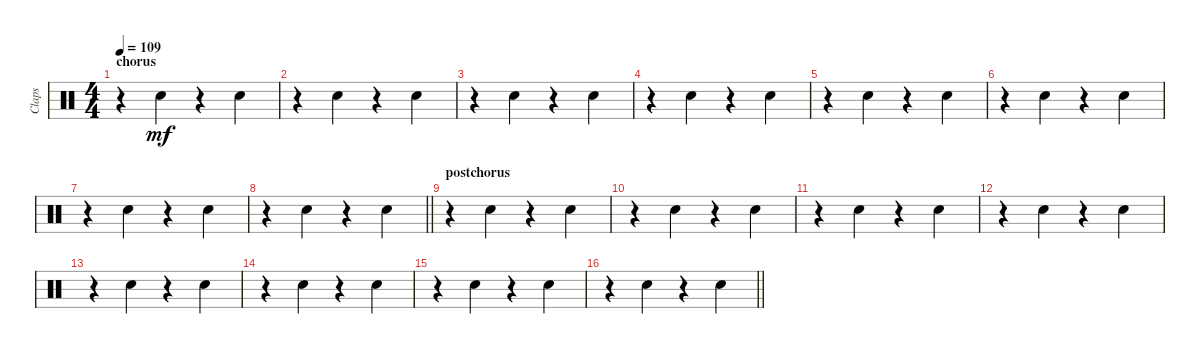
\track ("Claps" "Claps") {instrument percussion}
\staff {score}
\articulation defaults
\ts (4 4)
\section ("" "chorus")
\tempo 109
\clef neutral
\ks c
r.4{dy mf} "Hand Clap (hit)".4 r.4 "Hand Clap (hit)".4 |
r.4 "Hand Clap (hit)".4 r.4 "Hand Clap (hit)".4 |
r.4 "Hand Clap (hit)".4 r.4 "Hand Clap (hit)".4 |
r.4 "Hand Clap (hit)".4 r.4 "Hand Clap (hit)".4 |
r.4 "Hand Clap (hit)".4 r.4 "Hand Clap (hit)".4 |
r.4 "Hand Clap (hit)".4 r.4 "Hand Clap (hit)".4 |
r.4 "Hand Clap (hit)".4 r.4 "Hand Clap (hit)".4 |
\barLineRight lightlight
r.4 "Hand Clap (hit)".4 r.4 "Hand Clap (hit)".4 |
\section ("" "postchorus")
r.4 "Hand Clap (hit)".4 r.4 "Hand Clap (hit)".4 |
r.4 "Hand Clap (hit)".4 r.4 "Hand Clap (hit)".4 |
r.4 "Hand Clap (hit)".4 r.4 "Hand Clap (hit)".4 |
r.4 "Hand Clap (hit)".4 r.4 "Hand Clap (hit)".4 |
r.4 "Hand Clap (hit)".4 r.4 "Hand Clap (hit)".4 |
r.4 "Hand Clap (hit)".4 r.4 "Hand Clap (hit)".4 |
r.4 "Hand Clap (hit)".4 r.4 "Hand Clap (hit)".4 |
\barLineRight lightlight
r.4 "Hand Clap (hit)".4 r.4 "Hand Clap (hit)".4
